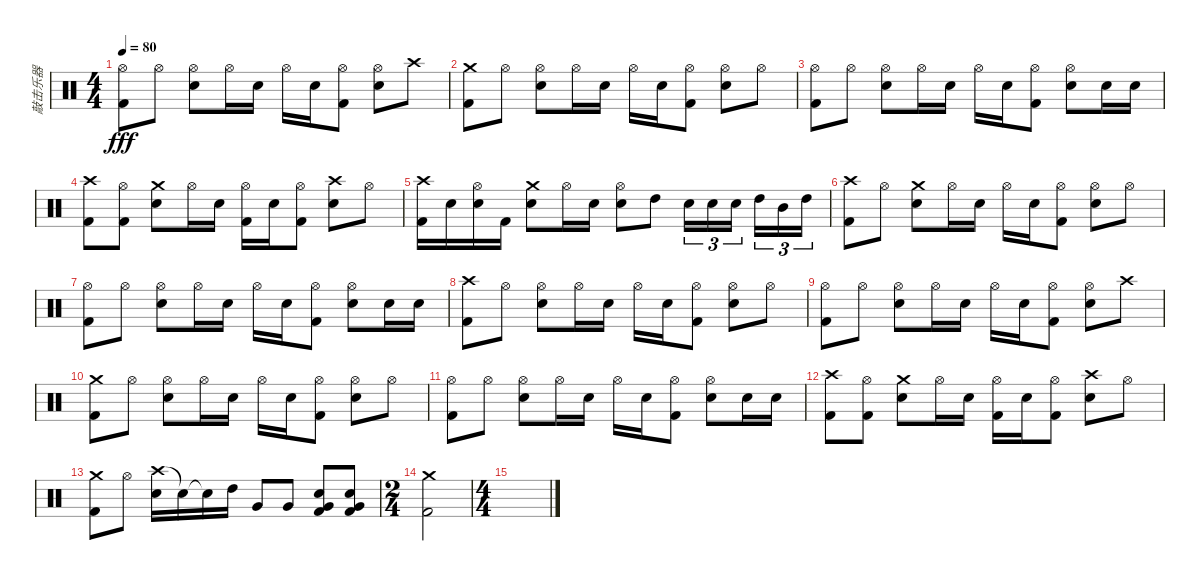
\track ("敲击乐器" "敲击乐器") {instrument percussion}
\staff {score}
\articulation defaults
\ts (4 4)
\tempo 80
\clef neutral
\ks c
("Hi-Hat (open)" "Kick (hit) 2").8{dy fff} "Hi-Hat (open)".8 ("Hi-Hat (open)" "Electric Snare (hit)").8 "Hi-Hat (open)".16 "Electric Snare (hit)".16 "Hi-Hat (open)".16 "Electric Snare (hit)".16 ("Hi-Hat (open)" "Kick (hit) 2").8 ("Hi-Hat (open)" "Electric Snare (hit)").8 "Crash high (hit)".8 |
("Crash medium (hit)" "Kick (hit) 2").8 "Hi-Hat (open)".8 ("Hi-Hat (open)" "Electric Snare (hit)").8 "Hi-Hat (open)".16 "Electric Snare (hit)".16 "Hi-Hat (open)".16 "Electric Snare (hit)".16 ("Hi-Hat (open)" "Kick (hit) 2").8 ("Hi-Hat (open)" "Electric Snare (hit)").8 "Hi-Hat (open)".8 |
("Hi-Hat (open)" "Kick (hit) 2").8 "Hi-Hat (open)".8 ("Hi-Hat (open)" "Electric Snare (hit)").8 "Hi-Hat (open)".16 "Electric Snare (hit)".16 "Hi-Hat (open)".16 "Electric Snare (hit)".16 ("Hi-Hat (open)" "Kick (hit) 2").8 ("Hi-Hat (open)" "Electric Snare (hit)").8 "Electric Snare (hit)".16 "Electric Snare (hit)".16 |
("Crash high (hit)" "Kick (hit) 2").8 ("Hi-Hat (open)" "Kick (hit) 2").8 ("Crash medium (hit)" "Electric Snare (hit)").8 "Hi-Hat (open)".16 "Electric Snare (hit)".16 ("Hi-Hat (open)" "Kick (hit) 2").16 "Electric Snare (hit)".16 ("Hi-Hat (open)" "Kick (hit) 2").8 ("Crash high (hit)" "Electric Snare (hit)").8 "Hi-Hat (open)".8 |
("Crash high (hit)" "Kick (hit) 2").16 "Electric Snare (hit)".16 ("Hi-Hat (open)" "Electric Snare (hit)").16 "Kick (hit) 2".16 ("Crash medium (hit)" "Electric Snare (hit)").8 "Hi-Hat (open)".16 "Electric Snare (hit)".16 ("Hi-Hat (open)" "Electric Snare (hit)").8 "High Tom (hit)".8 "Electric Snare (hit)".16{tu (3 2)} "Electric Snare (hit)".16{tu (3 2)} "Electric Snare (hit)".16{tu (3 2) beam splitsecondary} "High Tom (hit)".16{tu (3 2)} "Mid Tom (hit)".16{tu (3 2)} "High Tom (hit)".16{tu (3 2)} |
("Crash high (hit)" "Kick (hit) 2").8 "Hi-Hat (open)".8 ("Crash medium (hit)" "Electric Snare (hit)").8 "Hi-Hat (open)".16 "Electric Snare (hit)".16 "Hi-Hat (open)".16 "Electric Snare (hit)".16 ("Hi-Hat (open)" "Kick (hit) 2").8 ("Hi-Hat (open)" "Electric Snare (hit)").8 "Hi-Hat (open)".8 |
("Hi-Hat (open)" "Kick (hit) 2").8 "Hi-Hat (open)".8 ("Hi-Hat (open)" "Electric Snare (hit)").8 "Hi-Hat (open)".16 "Electric Snare (hit)".16 "Hi-Hat (open)".16 "Electric Snare (hit)".16 ("Hi-Hat (open)" "Kick (hit) 2").8 ("Hi-Hat (open)" "Electric Snare (hit)").8 "Electric Snare (hit)".16 "Electric Snare (hit)".16 |
("Crash high (hit)" "Kick (hit) 2").8 "Hi-Hat (open)".8 ("Hi-Hat (open)" "Electric Snare (hit)").8 "Hi-Hat (open)".16 "Electric Snare (hit)".16 "Hi-Hat (open)".16 "Electric Snare (hit)".16 ("Hi-Hat (open)" "Kick (hit) 2").8 ("Hi-Hat (open)" "Electric Snare (hit)").8 "Hi-Hat (open)".8 |
("Hi-Hat (open)" "Kick (hit) 2").8 "Hi-Hat (open)".8 ("Hi-Hat (open)" "Electric Snare (hit)").8 "Hi-Hat (open)".16 "Electric Snare (hit)".16 "Hi-Hat (open)".16 "Electric Snare (hit)".16 ("Hi-Hat (open)" "Kick (hit) 2").8 ("Hi-Hat (open)" "Electric Snare (hit)").8 "Crash high (hit)".8 |
("Crash medium (hit)" "Kick (hit) 2").8 "Hi-Hat (open)".8 ("Hi-Hat (open)" "Electric Snare (hit)").8 "Hi-Hat (open)".16 "Electric Snare (hit)".16 "Hi-Hat (open)".16 "Electric Snare (hit)".16 ("Hi-Hat (open)" "Kick (hit) 2").8 ("Hi-Hat (open)" "Electric Snare (hit)").8 "Hi-Hat (open)".8 |
("Hi-Hat (open)" "Kick (hit) 2").8 "Hi-Hat (open)".8 ("Hi-Hat (open)" "Electric Snare (hit)").8 "Hi-Hat (open)".16 "Electric Snare (hit)".16 "Hi-Hat (open)".16 "Electric Snare (hit)".16 ("Hi-Hat (open)" "Kick (hit) 2").8 ("Hi-Hat (open)" "Electric Snare (hit)").8 "Electric Snare (hit)".16 "Electric Snare (hit)".16 |
("Crash high (hit)" "Kick (hit) 2").8 ("Hi-Hat (open)" "Kick (hit) 2").8 ("Crash medium (hit)" "Electric Snare (hit)").8 "Hi-Hat (open)".16 "Electric Snare (hit)".16 ("Hi-Hat (open)" "Kick (hit) 2").16 "Electric Snare (hit)".16 ("Hi-Hat (open)" "Kick (hit) 2").8 ("Crash high (hit)" "Electric Snare (hit)").8 "Hi-Hat (open)".8 |
("Crash medium (hit)" "Kick (hit) 2").8 "Hi-Hat (open)".8 ("Crash high (hit)" "Electric Snare (hit)").16 "Snare (hit)"{t}.16 "Snare (hit)"{t}.16 "High Tom (hit)".16 "Very Low Tom (hit)".8 "Very Low Tom (hit)".8 ("Electric Snare (hit)" "Very Low Tom (hit)" "Kick (hit) 2").8 ("Electric Snare (hit)" "Very Low Tom (hit)" "Kick (hit) 2").8 |
\ts (2 4)
("Crash medium (hit)" "Kick (hit) 2").2 |
\ts (4 4)
